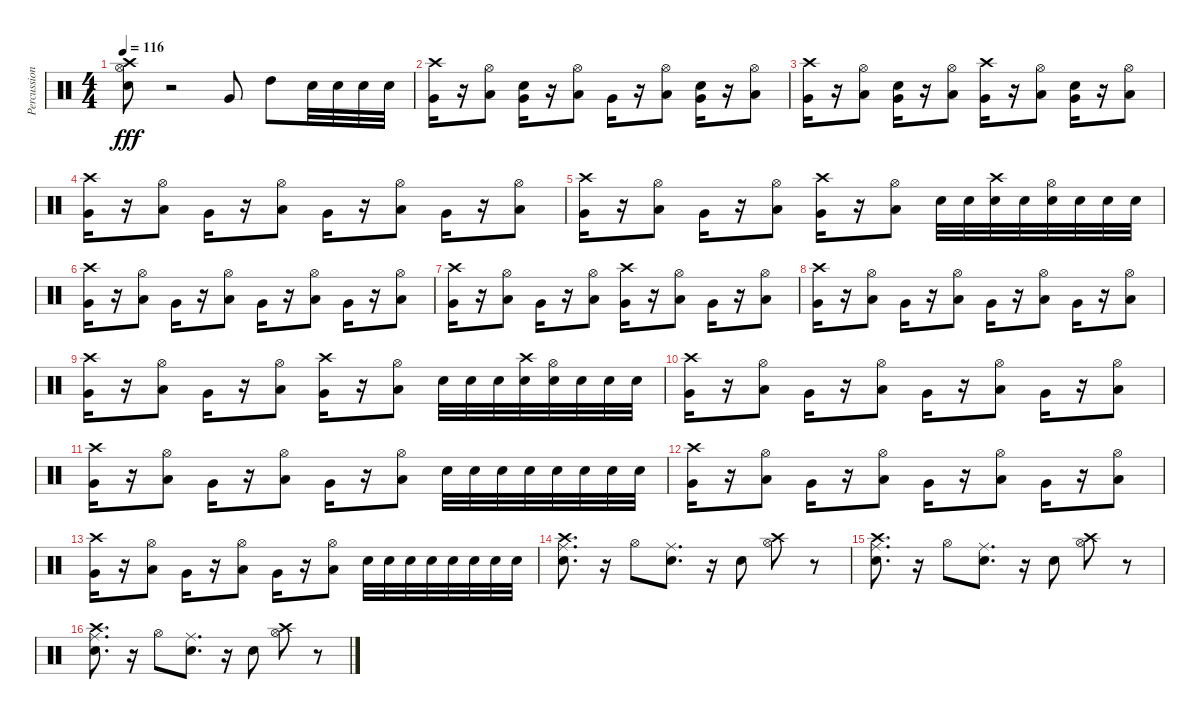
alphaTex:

\track ("Percussion (Glenn Porter)" "Percussion") {instrument percussion}
\staff {score}
\articulation defaults
\ts (4 4)
\tempo 116
\clef neutral
\ks c
("Crash high (hit)" "Hi-Hat (open)" "Electric Snare (hit)").8{dy fff} r.2 "Very Low Tom (hit)".8 "High Tom (hit)".8 "Snare (hit) 2".32 "Snare (hit) 2".32 "Snare (hit) 2".32 "Snare (hit) 2".32 |
("Crash high (hit)" "Very Low Tom (hit)").16 r.16 ("Hi-Hat (open)" "Low Tom (hit)").8 ("Snare (hit) 2" "Very Low Tom (hit)").16 r.16 ("Hi-Hat (open)" "Low Tom (hit)").8 "Very Low Tom (hit)".16 r.16 ("Hi-Hat (open)" "Low Tom (hit)").8 ("Snare (hit) 2" "Very Low Tom (hit)").16 r.16 ("Hi-Hat (open)" "Low Tom (hit)").8 |
("Crash high (hit)" "Very Low Tom (hit)").16 r.16 ("Hi-Hat (open)" "Low Tom (hit)").8 ("Snare (hit) 2" "Very Low Tom (hit)").16 r.16 ("Hi-Hat (open)" "Low Tom (hit)").8 ("Crash high (hit)" "Very Low Tom (hit)").16 r.16 ("Hi-Hat (open)" "Low Tom (hit)").8 ("Snare (hit) 2" "Very Low Tom (hit)").16 r.16 ("Hi-Hat (open)" "Low Tom (hit)").8 |
("Crash high (hit)" "Very Low Tom (hit)").16 r.16 ("Hi-Hat (open)" "Low Tom (hit)").8 "Very Low Tom (hit)".16 r.16 ("Hi-Hat (open)" "Low Tom (hit)").8 "Very Low Tom (hit)".16 r.16 ("Hi-Hat (open)" "Low Tom (hit)").8 "Very Low Tom (hit)".16 r.16 ("Hi-Hat (open)" "Low Tom (hit)").8 |
("Crash high (hit)" "Very Low Tom (hit)").16 r.16 ("Hi-Hat (open)" "Low Tom (hit)").8 "Very Low Tom (hit)".16 r.16 ("Hi-Hat (open)" "Low Tom (hit)").8 ("Crash high (hit)" "Very Low Tom (hit)").16 r.16 ("Hi-Hat (open)" "Low Tom (hit)").8 "Snare (hit) 2".32 "Snare (hit) 2".32 ("Crash high (hit)" "Snare (hit) 2").32 "Snare (hit) 2".32 ("Hi-Hat (open)" "Snare (hit) 2").32 "Snare (hit) 2".32 "Snare (hit) 2".32 "Snare (hit) 2".32 |
("Crash high (hit)" "Very Low Tom (hit)").16 r.16 ("Hi-Hat (open)" "Low Tom (hit)").8 "Very Low Tom (hit)".16 r.16 ("Hi-Hat (open)" "Low Tom (hit)").8 "Very Low Tom (hit)".16 r.16 ("Hi-Hat (open)" "Low Tom (hit)").8 "Very Low Tom (hit)".16 r.16 ("Hi-Hat (open)" "Low Tom (hit)").8 |
("Crash high (hit)" "Very Low Tom (hit)").16 r.16 ("Hi-Hat (open)" "Low Tom (hit)").8 "Very Low Tom (hit)".16 r.16 ("Hi-Hat (open)" "Low Tom (hit)").8 ("Crash high (hit)" "Very Low Tom (hit)").16 r.16 ("Hi-Hat (open)" "Low Tom (hit)").8 "Very Low Tom (hit)".16 r.16 ("Hi-Hat (open)" "Low Tom (hit)").8 |
("Crash high (hit)" "Very Low Tom (hit)").16 r.16 ("Hi-Hat (open)" "Low Tom (hit)").8 "Very Low Tom (hit)".16 r.16 ("Hi-Hat (open)" "Low Tom (hit)").8 "Very Low Tom (hit)".16 r.16 ("Hi-Hat (open)" "Low Tom (hit)").8 "Very Low Tom (hit)".16 r.16 ("Hi-Hat (open)" "Low Tom (hit)").8 |
("Crash high (hit)" "Very Low Tom (hit)").16 r.16 ("Hi-Hat (open)" "Low Tom (hit)").8 "Very Low Tom (hit)".16 r.16 ("Hi-Hat (open)" "Low Tom (hit)").8 ("Crash high (hit)" "Very Low Tom (hit)").16 r.16 ("Hi-Hat (open)" "Low Tom (hit)").8 "Snare (hit) 2".32 "Snare (hit) 2".32 "Snare (hit) 2".32 ("Crash high (hit)" "Snare (hit) 2").32 ("Hi-Hat (open)" "Snare (hit) 2").32 "Snare (hit) 2".32 "Snare (hit) 2".32 "Snare (hit) 2".32 |
("Crash high (hit)" "Very Low Tom (hit)").16 r.16 ("Hi-Hat (open)" "Low Tom (hit)").8 "Very Low Tom (hit)".16 r.16 ("Hi-Hat (open)" "Low Tom (hit)").8 "Very Low Tom (hit)".16 r.16 ("Hi-Hat (open)" "Low Tom (hit)").8 "Very Low Tom (hit)".16 r.16 ("Hi-Hat (open)" "Low Tom (hit)").8 |
("Crash high (hit)" "Very Low Tom (hit)").16 r.16 ("Hi-Hat (open)" "Low Tom (hit)").8 "Very Low Tom (hit)".16 r.16 ("Hi-Hat (open)" "Low Tom (hit)").8 "Very Low Tom (hit)".16 r.16 ("Hi-Hat (open)" "Low Tom (hit)").8 "Snare (hit) 2".32 "Snare (hit) 2".32 "Snare (hit) 2".32 "Snare (hit) 2".32 "Snare (hit) 2".32 "Snare (hit) 2".32 "Snare (hit) 2".32 "Snare (hit) 2".32 |
("Crash high (hit)" "Very Low Tom (hit)").16 r.16 ("Hi-Hat (open)" "Low Tom (hit)").8 "Very Low Tom (hit)".16 r.16 ("Hi-Hat (open)" "Low Tom (hit)").8 "Very Low Tom (hit)".16 r.16 ("Hi-Hat (open)" "Low Tom (hit)").8 "Very Low Tom (hit)".16 r.16 ("Hi-Hat (open)" "Low Tom (hit)").8 |
("Crash high (hit)" "Very Low Tom (hit)").16 r.16 ("Hi-Hat (open)" "Low Tom (hit)").8 "Very Low Tom (hit)".16 r.16 ("Hi-Hat (open)" "Low Tom (hit)").8 "Very Low Tom (hit)".16 r.16 ("Hi-Hat (open)" "Low Tom (hit)").8 "Snare (hit) 2".32 "Snare (hit) 2".32 "Snare (hit) 2".32 "Snare (hit) 2".32 "Snare (hit) 2".32 "Snare (hit) 2".32 "Snare (hit) 2".32 "Snare (hit) 2".32 |
("Ride (middle)" "Crash high (hit)" "Electric Snare (hit)").8{d} r.16 "Hi-Hat (open)".8 ("Ride (middle)" "Electric Snare (hit)").8{d} r.16 "Snare (hit) 2".8 ("Crash high (hit)" "Hi-Hat (open)").8 r.8 |
("Ride (middle)" "Crash high (hit)" "Electric Snare (hit)").8{d} r.16 "Hi-Hat (open)".8 ("Ride (middle)" "Electric Snare (hit)").8{d} r.16 "Snare (hit) 2".8 ("Crash high (hit)" "Hi-Hat (open)").8 r.8 |
("Ride (middle)" "Crash high (hit)" "Electric Snare (hit)").8{d} r.16 "Hi-Hat (open)".8 ("Ride (middle)" "Electric Snare (hit)").8{d} r.16 "Snare (hit) 2".8 ("Crash high (hit)" "Hi-Hat (open)").8 r.8
